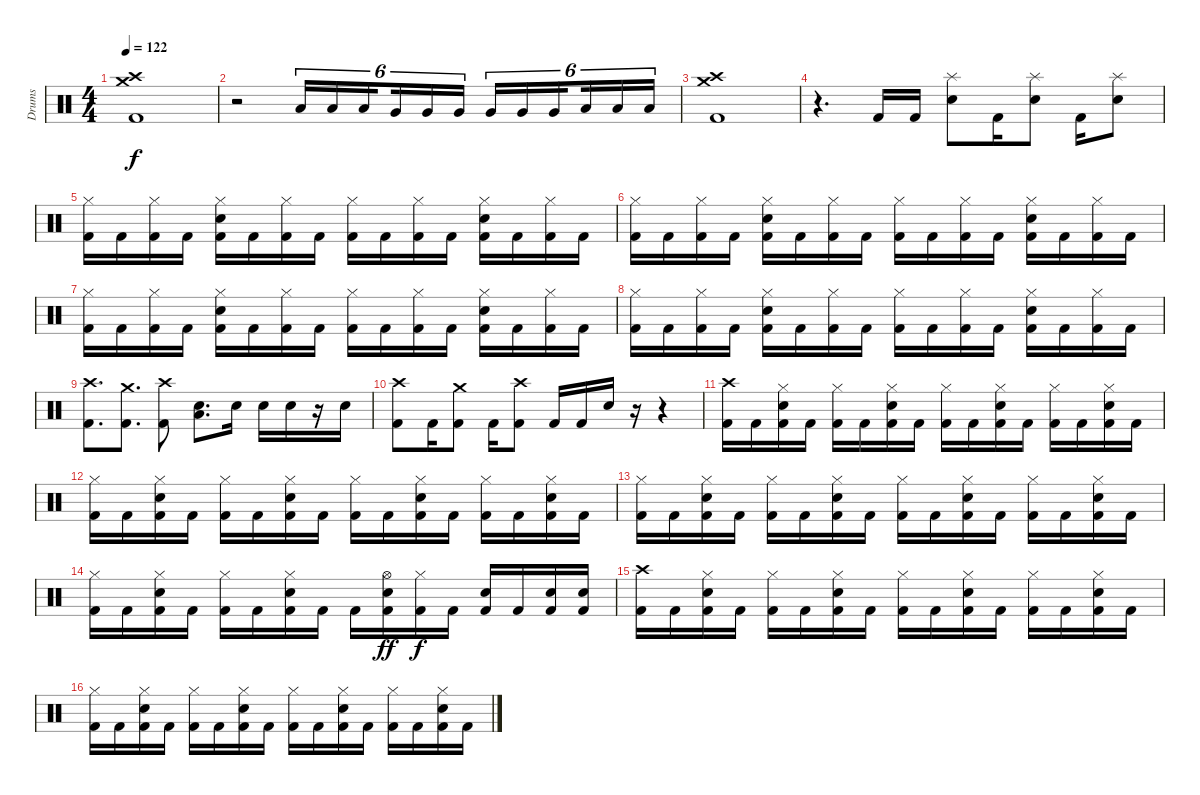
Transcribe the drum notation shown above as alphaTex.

\track ("Drums" "Drums") {instrument percussion}
\staff {score}
\articulation defaults
\ts (4 4)
\section ("" "")
\tempo 122
\clef neutral
\ks c
("Crash medium (hit)" "Crash high (hit)" "Kick (hit) 2").1{dy f} |
r.2 "Low Tom (hit)".16{tu (6 4)} "Low Tom (hit)".16{tu (6 4)} "Low Tom (hit)".16{tu (6 4) beam splitsecondary} "Very Low Tom (hit)".16{tu (6 4)} "Very Low Tom (hit)".16{tu (6 4)} "Very Low Tom (hit)".16{tu (6 4)} "Very Low Tom (hit)".16{tu (6 4)} "Very Low Tom (hit)".16{tu (6 4)} "Very Low Tom (hit)".16{tu (6 4) beam splitsecondary} "Low Floor Tom (hit)".16{tu (6 4)} "Low Floor Tom (hit)".16{tu (6 4)} "Low Floor Tom (hit)".16{tu (6 4)} |
("Crash medium (hit)" "Crash high (hit)" "Kick (hit) 2").1 |
r.4{d} "Kick (hit) 2".16 "Kick (hit) 2".16 ("Splash (hit)" "Snare (hit) 2").8 "Kick (hit) 2".16 ("Splash (hit)" "Snare (hit) 2").8 "Kick (hit) 2".16 ("Splash (hit)" "Snare (hit) 2").8 |
("Hi-Hat (closed)" "Kick (hit) 2").16 "Kick (hit) 2".16 ("Hi-Hat (closed)" "Kick (hit) 2").16 "Kick (hit) 2".16 ("Hi-Hat (closed)" "Snare (hit) 2" "Kick (hit) 2").16 "Kick (hit) 2".16 ("Hi-Hat (closed)" "Kick (hit) 2").16 "Kick (hit) 2".16 ("Hi-Hat (closed)" "Kick (hit) 2").16 "Kick (hit) 2".16 ("Hi-Hat (closed)" "Kick (hit) 2").16 "Kick (hit) 2".16 ("Hi-Hat (closed)" "Snare (hit) 2" "Kick (hit) 2").16 "Kick (hit) 2".16 ("Hi-Hat (closed)" "Kick (hit) 2").16 "Kick (hit) 2".16 |
("Hi-Hat (closed)" "Kick (hit) 2").16 "Kick (hit) 2".16 ("Hi-Hat (closed)" "Kick (hit) 2").16 "Kick (hit) 2".16 ("Hi-Hat (closed)" "Snare (hit) 2" "Kick (hit) 2").16 "Kick (hit) 2".16 ("Hi-Hat (closed)" "Kick (hit) 2").16 "Kick (hit) 2".16 ("Hi-Hat (closed)" "Kick (hit) 2").16 "Kick (hit) 2".16 ("Hi-Hat (closed)" "Kick (hit) 2").16 "Kick (hit) 2".16 ("Hi-Hat (closed)" "Snare (hit) 2" "Kick (hit) 2").16 "Kick (hit) 2".16 ("Hi-Hat (closed)" "Kick (hit) 2").16 "Kick (hit) 2".16 |
("Hi-Hat (closed)" "Kick (hit) 2").16 "Kick (hit) 2".16 ("Hi-Hat (closed)" "Kick (hit) 2").16 "Kick (hit) 2".16 ("Hi-Hat (closed)" "Snare (hit) 2" "Kick (hit) 2").16 "Kick (hit) 2".16 ("Hi-Hat (closed)" "Kick (hit) 2").16 "Kick (hit) 2".16 ("Hi-Hat (closed)" "Kick (hit) 2").16 "Kick (hit) 2".16 ("Hi-Hat (closed)" "Kick (hit) 2").16 "Kick (hit) 2".16 ("Hi-Hat (closed)" "Snare (hit) 2" "Kick (hit) 2").16 "Kick (hit) 2".16 ("Hi-Hat (closed)" "Kick (hit) 2").16 "Kick (hit) 2".16 |
("Hi-Hat (closed)" "Kick (hit) 2").16 "Kick (hit) 2".16 ("Hi-Hat (closed)" "Kick (hit) 2").16 "Kick (hit) 2".16 ("Hi-Hat (closed)" "Snare (hit) 2" "Kick (hit) 2").16 "Kick (hit) 2".16 ("Hi-Hat (closed)" "Kick (hit) 2").16 "Kick (hit) 2".16 ("Hi-Hat (closed)" "Kick (hit) 2").16 "Kick (hit) 2".16 ("Hi-Hat (closed)" "Kick (hit) 2").16 "Kick (hit) 2".16 ("Hi-Hat (closed)" "Snare (hit) 2" "Kick (hit) 2").16 "Kick (hit) 2".16 ("Hi-Hat (closed)" "Kick (hit) 2").16 "Kick (hit) 2".16 |
("Crash high (hit)" "Kick (hit) 2").8{d} ("Crash medium (hit)" "Kick (hit) 2").8{d} ("Crash high (hit)" "Kick (hit) 2").8 ("Low Floor Tom (hit)" "Snare (hit) 2").8{d} "Snare (hit) 2".16 "Snare (hit) 2".16 "Snare (hit) 2".16 r.16 "Snare (hit) 2".16 |
("Crash high (hit)" "Kick (hit) 2").8 "Kick (hit) 2".16 ("Crash medium (hit)" "Kick (hit) 2").8 "Kick (hit) 2".16 ("Crash high (hit)" "Kick (hit) 2").8 "Kick (hit) 2".16 "Kick (hit) 2".16 "Snare (hit) 2".16 r.16 r.4 |
("Crash high (hit)" "Kick (hit) 2").16 "Kick (hit) 2".16 ("Hi-Hat (closed)" "Snare (hit) 2" "Kick (hit) 2").16 "Kick (hit) 2".16 ("Hi-Hat (closed)" "Kick (hit) 2").16 "Kick (hit) 2".16 ("Hi-Hat (closed)" "Snare (hit) 2" "Kick (hit) 2").16 "Kick (hit) 2".16 ("Hi-Hat (closed)" "Kick (hit) 2").16 "Kick (hit) 2".16 ("Hi-Hat (closed)" "Snare (hit) 2" "Kick (hit) 2").16 "Kick (hit) 2".16 ("Hi-Hat (closed)" "Kick (hit) 2").16 "Kick (hit) 2".16 ("Hi-Hat (closed)" "Snare (hit) 2" "Kick (hit) 2").16 "Kick (hit) 2".16 |
("Hi-Hat (closed)" "Kick (hit) 2").16 "Kick (hit) 2".16 ("Hi-Hat (closed)" "Snare (hit) 2" "Kick (hit) 2").16 "Kick (hit) 2".16 ("Hi-Hat (closed)" "Kick (hit) 2").16 "Kick (hit) 2".16 ("Hi-Hat (closed)" "Snare (hit) 2" "Kick (hit) 2").16 "Kick (hit) 2".16 ("Hi-Hat (closed)" "Kick (hit) 2").16 "Kick (hit) 2".16 ("Hi-Hat (closed)" "Snare (hit) 2" "Kick (hit) 2").16 "Kick (hit) 2".16 ("Hi-Hat (closed)" "Kick (hit) 2").16 "Kick (hit) 2".16 ("Hi-Hat (closed)" "Snare (hit) 2" "Kick (hit) 2").16 "Kick (hit) 2".16 |
("Hi-Hat (closed)" "Kick (hit) 2").16 "Kick (hit) 2".16 ("Hi-Hat (closed)" "Snare (hit) 2" "Kick (hit) 2").16 "Kick (hit) 2".16 ("Hi-Hat (closed)" "Kick (hit) 2").16 "Kick (hit) 2".16 ("Hi-Hat (closed)" "Snare (hit) 2" "Kick (hit) 2").16 "Kick (hit) 2".16 ("Hi-Hat (closed)" "Kick (hit) 2").16 "Kick (hit) 2".16 ("Hi-Hat (closed)" "Snare (hit) 2" "Kick (hit) 2").16 "Kick (hit) 2".16 ("Hi-Hat (closed)" "Kick (hit) 2").16 "Kick (hit) 2".16 ("Hi-Hat (closed)" "Snare (hit) 2" "Kick (hit) 2").16 "Kick (hit) 2".16 |
("Hi-Hat (closed)" "Kick (hit) 2").16 "Kick (hit) 2".16 ("Hi-Hat (closed)" "Snare (hit) 2" "Kick (hit) 2").16 "Kick (hit) 2".16 ("Hi-Hat (closed)" "Kick (hit) 2").16 "Kick (hit) 2".16 ("Hi-Hat (closed)" "Snare (hit) 2" "Kick (hit) 2").16 "Kick (hit) 2".16 "Kick (hit) 2".16 ("Hi-Hat (open)" "Snare (hit) 2" "Kick (hit) 2").16{dy ff} ("Hi-Hat (closed)" "Kick (hit) 2").16{dy f} "Kick (hit) 2".16 ("Snare (hit) 2" "Kick (hit) 2").16 "Kick (hit) 2".16 ("Snare (hit) 2" "Kick (hit) 2").16 ("Snare (hit) 2" "Kick (hit) 2").16 |
("Crash high (hit)" "Kick (hit) 2").16 "Kick (hit) 2".16 ("Hi-Hat (closed)" "Snare (hit) 2" "Kick (hit) 2").16 "Kick (hit) 2".16 ("Hi-Hat (closed)" "Kick (hit) 2").16 "Kick (hit) 2".16 ("Hi-Hat (closed)" "Snare (hit) 2" "Kick (hit) 2").16 "Kick (hit) 2".16 ("Hi-Hat (closed)" "Kick (hit) 2").16 "Kick (hit) 2".16 ("Hi-Hat (closed)" "Snare (hit) 2" "Kick (hit) 2").16 "Kick (hit) 2".16 ("Hi-Hat (closed)" "Kick (hit) 2").16 "Kick (hit) 2".16 ("Hi-Hat (closed)" "Snare (hit) 2" "Kick (hit) 2").16 "Kick (hit) 2".16 |
("Hi-Hat (closed)" "Kick (hit) 2").16 "Kick (hit) 2".16 ("Hi-Hat (closed)" "Snare (hit) 2" "Kick (hit) 2").16 "Kick (hit) 2".16 ("Hi-Hat (closed)" "Kick (hit) 2").16 "Kick (hit) 2".16 ("Hi-Hat (closed)" "Snare (hit) 2" "Kick (hit) 2").16 "Kick (hit) 2".16 ("Hi-Hat (closed)" "Kick (hit) 2").16 "Kick (hit) 2".16 ("Hi-Hat (closed)" "Snare (hit) 2" "Kick (hit) 2").16 "Kick (hit) 2".16 ("Hi-Hat (closed)" "Kick (hit) 2").16 "Kick (hit) 2".16 ("Hi-Hat (closed)" "Snare (hit) 2" "Kick (hit) 2").16 "Kick (hit) 2".16
